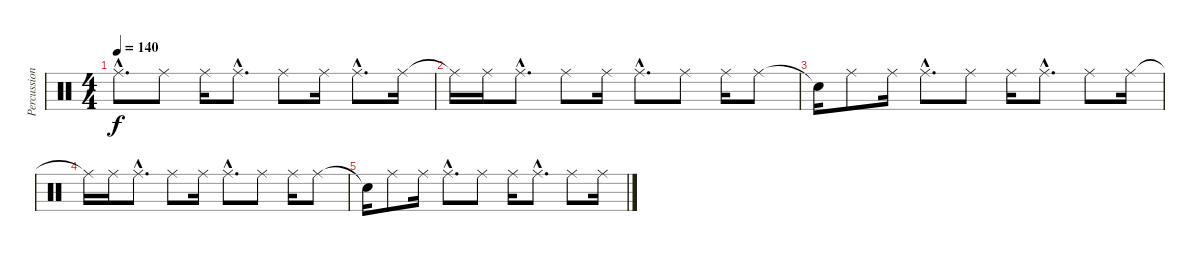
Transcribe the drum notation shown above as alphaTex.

\track ("Percussion" "Percussion") {instrument percussion}
\staff {score}
\articulation defaults
\ts (4 4)
\tempo 140
\clef neutral
\ks c "Ride (middle)"{hac}.8{d dy f} "Ride (middle)".8 "Ride (middle)".16 "Ride (middle)"{hac}.8{d} "Ride (middle)".8 "Ride (middle)".16 "Ride (middle)"{hac}.8{d} "Ride (middle)".16
|
"Ride (middle)"{t}.16 "Ride (middle)".16 "Ride (middle)"{hac}.8{d} "Ride (middle)".8 "Ride (middle)".16 "Ride (middle)"{hac}.8{d} "Ride (middle)".8 "Ride (middle)".16 "Ride (middle)".8 |
"Snare (hit)"{t}.16 "Ride (middle)".8 "Ride (middle)".16 "Ride (middle)"{hac}.8{d} "Ride (middle)".8 "Ride (middle)".16 "Ride (middle)"{hac}.8{d} "Ride (middle)".8 "Ride (middle)".16 |
"Ride (middle)"{t}.16 "Ride (middle)".16 "Ride (middle)"{hac}.8{d} "Ride (middle)".8 "Ride (middle)".16 "Ride (middle)"{hac}.8{d} "Ride (middle)".8 "Ride (middle)".16 "Ride (middle)".8 |
"Snare (hit)"{t}.16 "Ride (middle)".8 "Ride (middle)".16 "Ride (middle)"{hac}.8{d} "Ride (middle)".8 "Ride (middle)".16 "Ride (middle)"{hac}.8{d} "Ride (middle)".8 "Ride (middle)".16
